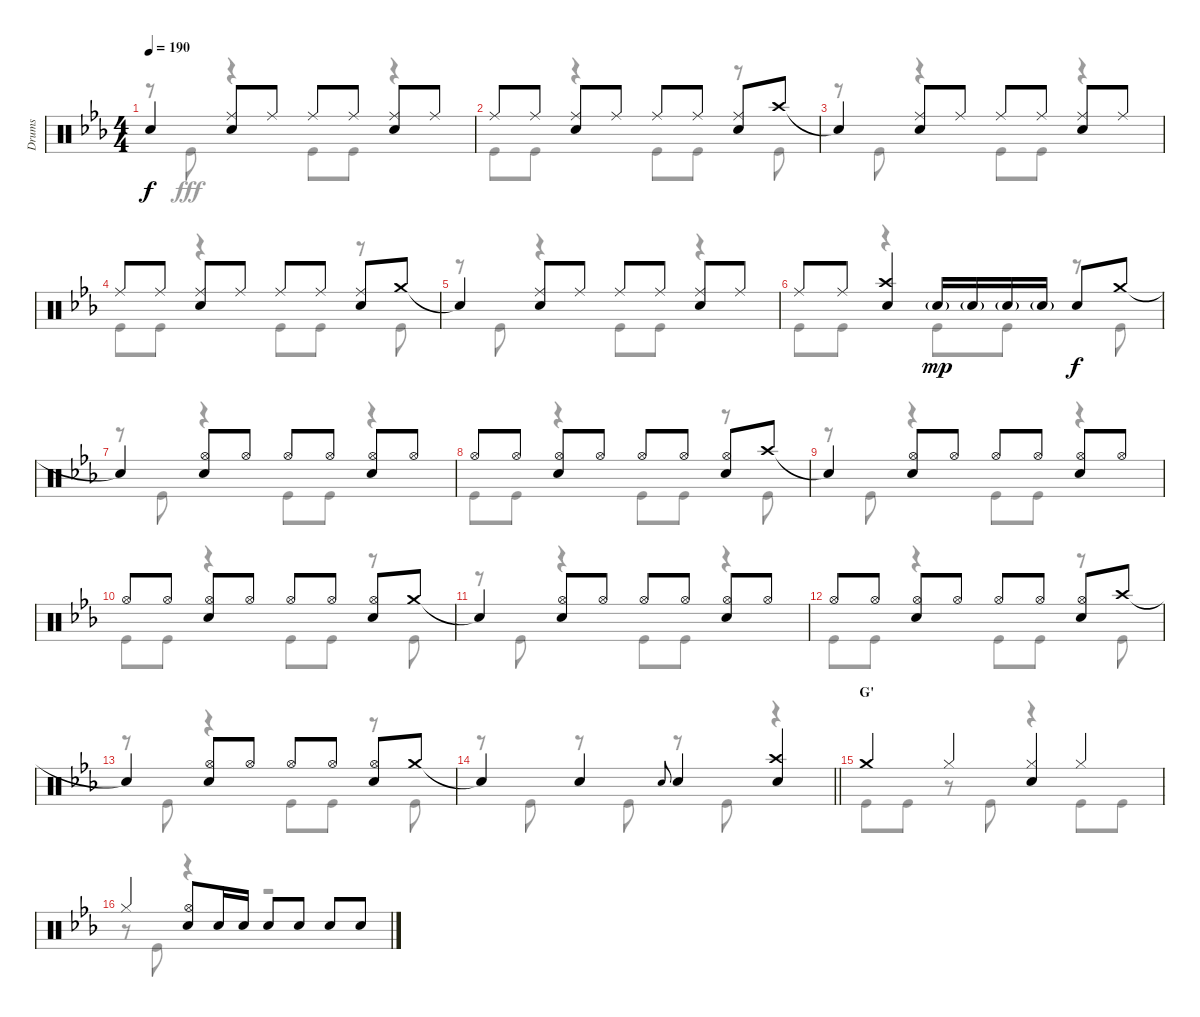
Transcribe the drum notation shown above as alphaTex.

\track ("Drums" "Drums") {instrument percussion}
\staff {score}
\articulation defaults
\voice
\ts (4 4)
\tempo 190
\clef neutral
\ks eb "Snare (hit)"{t}.4{dy f}
("Ride (middle)" "Snare (hit) 2").8 "Ride (middle)".8 "Ride (middle)".8 "Ride (middle)".8 ("Ride (middle)" "Snare (hit) 2").8 "Ride (middle)".8 |
"Ride (middle)".8 "Ride (middle)".8 ("Ride (middle)" "Snare (hit) 2").8 "Ride (middle)".8 "Ride (middle)".8 "Ride (middle)".8 ("Ride (middle)" "Snare (hit) 2").8 "Crash high (hit)".8 |
"Snare (hit)"{t}.4 ("Ride (middle)" "Snare (hit) 2").8 "Ride (middle)".8 "Ride (middle)".8 "Ride (middle)".8 ("Ride (middle)" "Snare (hit) 2").8 "Ride (middle)".8 |
"Ride (middle)".8 "Ride (middle)".8 ("Ride (middle)" "Snare (hit) 2").8 "Ride (middle)".8 "Ride (middle)".8 "Ride (middle)".8 ("Ride (middle)" "Snare (hit) 2").8 "Crash medium (hit)".8 |
"Snare (hit)"{t}.4 ("Ride (middle)" "Snare (hit) 2").8 "Ride (middle)".8 "Ride (middle)".8 "Ride (middle)".8 ("Ride (middle)" "Snare (hit) 2").8 "Ride (middle)".8 |
"Ride (middle)".8 "Ride (middle)".8 ("Crash high (hit)" "Snare (hit) 2").4 "Snare (hit) 2"{g}.16{dy mp} "Snare (hit) 2"{g}.16 "Snare (hit) 2"{g}.16 "Snare (hit) 2"{g}.16 "Snare (hit) 2".8{dy f} "Crash medium (hit)".8 |
"Snare (hit)"{t}.4 ("Hi-Hat (open)" "Snare (hit) 2").8 "Hi-Hat (open)".8 "Hi-Hat (open)".8 "Hi-Hat (open)".8 ("Hi-Hat (open)" "Snare (hit) 2").8 "Hi-Hat (open)".8 |
"Hi-Hat (open)".8 "Hi-Hat (open)".8 ("Hi-Hat (open)" "Snare (hit) 2").8 "Hi-Hat (open)".8 "Hi-Hat (open)".8 "Hi-Hat (open)".8 ("Hi-Hat (open)" "Snare (hit) 2").8 "Crash high (hit)".8 |
"Snare (hit)"{t}.4 ("Hi-Hat (open)" "Snare (hit) 2").8 "Hi-Hat (open)".8 "Hi-Hat (open)".8 "Hi-Hat (open)".8 ("Hi-Hat (open)" "Snare (hit) 2").8 "Hi-Hat (open)".8 |
"Hi-Hat (open)".8 "Hi-Hat (open)".8 ("Hi-Hat (open)" "Snare (hit) 2").8 "Hi-Hat (open)".8 "Hi-Hat (open)".8 "Hi-Hat (open)".8 ("Hi-Hat (open)" "Snare (hit) 2").8 "Crash medium (hit)".8 |
"Snare (hit)"{t}.4 ("Hi-Hat (open)" "Snare (hit) 2").8 "Hi-Hat (open)".8 "Hi-Hat (open)".8 "Hi-Hat (open)".8 ("Hi-Hat (open)" "Snare (hit) 2").8 "Hi-Hat (open)".8 |
"Hi-Hat (open)".8 "Hi-Hat (open)".8 ("Hi-Hat (open)" "Snare (hit) 2").8 "Hi-Hat (open)".8 "Hi-Hat (open)".8 "Hi-Hat (open)".8 ("Hi-Hat (open)" "Snare (hit) 2").8 "Crash high (hit)".8 |
"Snare (hit)"{t}.4 ("Hi-Hat (open)" "Snare (hit) 2").8 "Hi-Hat (open)".8 "Hi-Hat (open)".8 "Hi-Hat (open)".8 ("Hi-Hat (open)" "Snare (hit) 2").8 "Crash medium (hit)".8 |
\barLineRight lightlight "Snare (hit)"{t}.4 "Snare (hit) 2".4 "Snare (hit) 2".8{gr onbeat} "Snare (hit) 2".4
("Crash high (hit)" "Snare (hit) 2").4 |
\section ("" "G'")
"Crash medium (hit)".4 "Hi-Hat (closed)".4 ("Hi-Hat (closed)" "Snare (hit) 2").4 "Hi-Hat (closed)".4 |
"Hi-Hat (closed)".4 ("Hi-Hat (open)" "Snare (hit) 2").8 "Snare (hit) 2".16 "Snare (hit) 2".16 "Snare (hit) 2".8 "Snare (hit) 2".8 "Snare (hit) 2".8 "Snare (hit) 2".8
\voice
\clef neutral
\ottava regular
\simile none
\ks eb
r.8{dy fff} "Kick (hit)".8 r.4 "Kick (hit)".8 "Kick (hit)".8 r.4 |
"Kick (hit)".8 "Kick (hit)".8 r.4 "Kick (hit)".8 "Kick (hit)".8 r.8 "Kick (hit)".8 |
r.8 "Kick (hit)".8 r.4 "Kick (hit)".8 "Kick (hit)".8 r.4 |
"Kick (hit)".8 "Kick (hit)".8 r.4 "Kick (hit)".8 "Kick (hit)".8 r.8 "Kick (hit)".8 |
r.8 "Kick (hit)".8 r.4 "Kick (hit)".8 "Kick (hit)".8 r.4 |
"Kick (hit)".8 "Kick (hit)".8 r.4 "Kick (hit)".8 "Kick (hit)".8 r.8 "Kick (hit)".8 |
r.8 "Kick (hit)".8 r.4 "Kick (hit)".8 "Kick (hit)".8 r.4 |
"Kick (hit)".8 "Kick (hit)".8 r.4 "Kick (hit)".8 "Kick (hit)".8 r.8 "Kick (hit)".8 |
r.8 "Kick (hit)".8 r.4 "Kick (hit)".8 "Kick (hit)".8 r.4 |
"Kick (hit)".8 "Kick (hit)".8 r.4 "Kick (hit)".8 "Kick (hit)".8 r.8 "Kick (hit)".8 |
r.8 "Kick (hit)".8 r.4 "Kick (hit)".8 "Kick (hit)".8 r.4 |
"Kick (hit)".8 "Kick (hit)".8 r.4 "Kick (hit)".8 "Kick (hit)".8 r.8 "Kick (hit)".8 |
r.8 "Kick (hit)".8 r.4 "Kick (hit)".8 "Kick (hit)".8 r.8 "Kick (hit)".8 |
\barLineRight lightlight
r.8 "Kick (hit)".8 r.8 "Kick (hit)".8 r.8 "Kick (hit)".8 r.4 |
"Kick (hit)".8 "Kick (hit)".8 r.8 "Kick (hit)".8 r.4 "Kick (hit)".8 "Kick (hit)".8 |
r.8 "Kick (hit)".8 r.4 r.2
